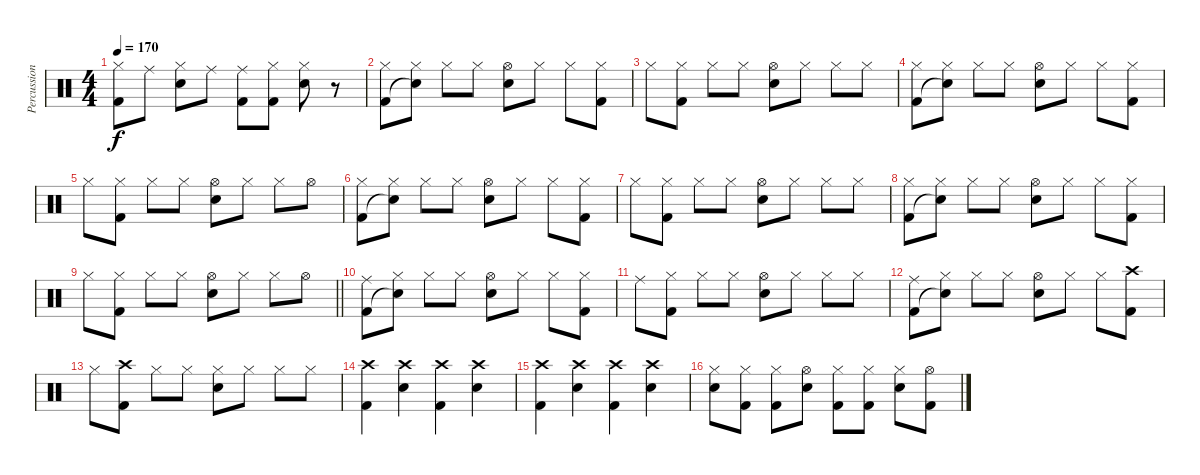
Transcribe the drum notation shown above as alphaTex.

\track ("Percussion" "Percussion") {instrument percussion}
\staff {score}
\articulation defaults
\ts (4 4)
\tempo 170
\clef neutral
\ks c
("Hi-Hat (closed)" "Kick (hit) 2").8{dy f} "Ride (middle)".8 ("Hi-Hat (closed)" "Snare (hit) 2").8 "Ride (middle)".8 ("Ride (middle)" "Kick (hit) 2").8 ("Hi-Hat (closed)" "Kick (hit) 2").8 ("Hi-Hat (closed)" "Snare (hit) 2").8 r.8 |
("Hi-Hat (closed)" "Kick (hit) 2").8 ("Hi-Hat (closed)" "Snare (hit)"{t}).8 "Hi-Hat (closed)".8 "Hi-Hat (closed)".8 ("Hi-Hat (open)" "Snare (hit) 2").8 "Hi-Hat (closed)".8 "Hi-Hat (closed)".8 ("Hi-Hat (closed)" "Kick (hit) 2").8 |
"Hi-Hat (closed)".8 ("Hi-Hat (closed)" "Kick (hit) 2").8 "Hi-Hat (closed)".8 "Hi-Hat (closed)".8 ("Hi-Hat (open)" "Snare (hit) 2").8 "Hi-Hat (closed)".8 "Hi-Hat (closed)".8 "Hi-Hat (closed)".8 |
("Hi-Hat (closed)" "Kick (hit) 2").8 ("Hi-Hat (closed)" "Snare (hit)"{t}).8 "Hi-Hat (closed)".8 "Hi-Hat (closed)".8 ("Hi-Hat (open)" "Snare (hit) 2").8 "Hi-Hat (closed)".8 "Hi-Hat (closed)".8 ("Hi-Hat (closed)" "Kick (hit) 2").8 |
"Hi-Hat (closed)".8 ("Hi-Hat (closed)" "Kick (hit) 2").8 "Hi-Hat (closed)".8 "Hi-Hat (closed)".8 ("Hi-Hat (open)" "Snare (hit) 2").8 "Hi-Hat (closed)".8 "Hi-Hat (closed)".8 "Hi-Hat (open)".8 |
("Hi-Hat (closed)" "Kick (hit) 2").8 ("Hi-Hat (closed)" "Snare (hit)"{t}).8 "Hi-Hat (closed)".8 "Hi-Hat (closed)".8 ("Hi-Hat (open)" "Snare (hit) 2").8 "Hi-Hat (closed)".8 "Hi-Hat (closed)".8 ("Hi-Hat (closed)" "Kick (hit) 2").8 |
"Hi-Hat (closed)".8 ("Hi-Hat (closed)" "Kick (hit) 2").8 "Hi-Hat (closed)".8 "Hi-Hat (closed)".8 ("Hi-Hat (open)" "Snare (hit) 2").8 "Hi-Hat (closed)".8 "Hi-Hat (closed)".8 "Hi-Hat (closed)".8 |
("Hi-Hat (closed)" "Kick (hit) 2").8 ("Hi-Hat (closed)" "Snare (hit)"{t}).8 "Hi-Hat (closed)".8 "Hi-Hat (closed)".8 ("Hi-Hat (open)" "Snare (hit) 2").8 "Hi-Hat (closed)".8 "Hi-Hat (closed)".8 ("Hi-Hat (closed)" "Kick (hit) 2").8 |
\barLineRight lightlight "Hi-Hat (closed)".8
("Hi-Hat (closed)" "Kick (hit) 2").8 "Hi-Hat (closed)".8 "Hi-Hat (closed)".8 ("Hi-Hat (open)" "Snare (hit) 2").8 "Hi-Hat (closed)".8 "Hi-Hat (closed)".8 "Hi-Hat (open)".8 |
("Ride (middle)" "Kick (hit) 2").8 ("Hi-Hat (closed)" "Snare (hit)"{t}).8 "Hi-Hat (closed)".8 "Hi-Hat (closed)".8 ("Hi-Hat (open)" "Snare (hit) 2").8 "Hi-Hat (closed)".8 "Hi-Hat (closed)".8 ("Hi-Hat (closed)" "Kick (hit) 2").8 |
"Ride (middle)".8 ("Hi-Hat (closed)" "Kick (hit) 2").8 "Hi-Hat (closed)".8 "Hi-Hat (closed)".8 ("Hi-Hat (open)" "Snare (hit) 2").8 "Hi-Hat (closed)".8 "Hi-Hat (closed)".8 "Hi-Hat (closed)".8 |
("Ride (middle)" "Kick (hit) 2").8 ("Hi-Hat (closed)" "Snare (hit)"{t}).8 "Hi-Hat (closed)".8 "Hi-Hat (closed)".8 ("Hi-Hat (open)" "Snare (hit) 2").8 "Hi-Hat (closed)".8 "Hi-Hat (closed)".8 ("Crash high (hit)" "Kick (hit) 2").8 |
"Hi-Hat (closed)".8 ("Crash high (hit)" "Kick (hit) 2").8 "Hi-Hat (closed)".8 "Hi-Hat (closed)".8 ("Hi-Hat (closed)" "Snare (hit) 2").8 "Hi-Hat (closed)".8 "Hi-Hat (closed)".8 "Hi-Hat (closed)".8 |
("Crash high (hit)" "Kick (hit) 2").4 ("Crash high (hit)" "Snare (hit) 2").4 ("Crash high (hit)" "Kick (hit) 2").4 ("Crash high (hit)" "Snare (hit) 2").4 |
("Crash high (hit)" "Kick (hit) 2").4 ("Crash high (hit)" "Snare (hit) 2").4 ("Crash high (hit)" "Kick (hit) 2").4 ("Crash high (hit)" "Snare (hit) 2").4 |
("Snare (hit) 2" "Hi-Hat (closed)").8 ("Kick (hit) 2" "Hi-Hat (closed)").8 ("Kick (hit) 2" "Hi-Hat (closed)").8 ("Snare (hit) 2" "Hi-Hat (open)").8 ("Kick (hit) 2" "Hi-Hat (closed)").8 ("Kick (hit) 2" "Hi-Hat (closed)").8 ("Snare (hit) 2" "Hi-Hat (closed)").8 ("Kick (hit) 2" "Hi-Hat (open)").8
